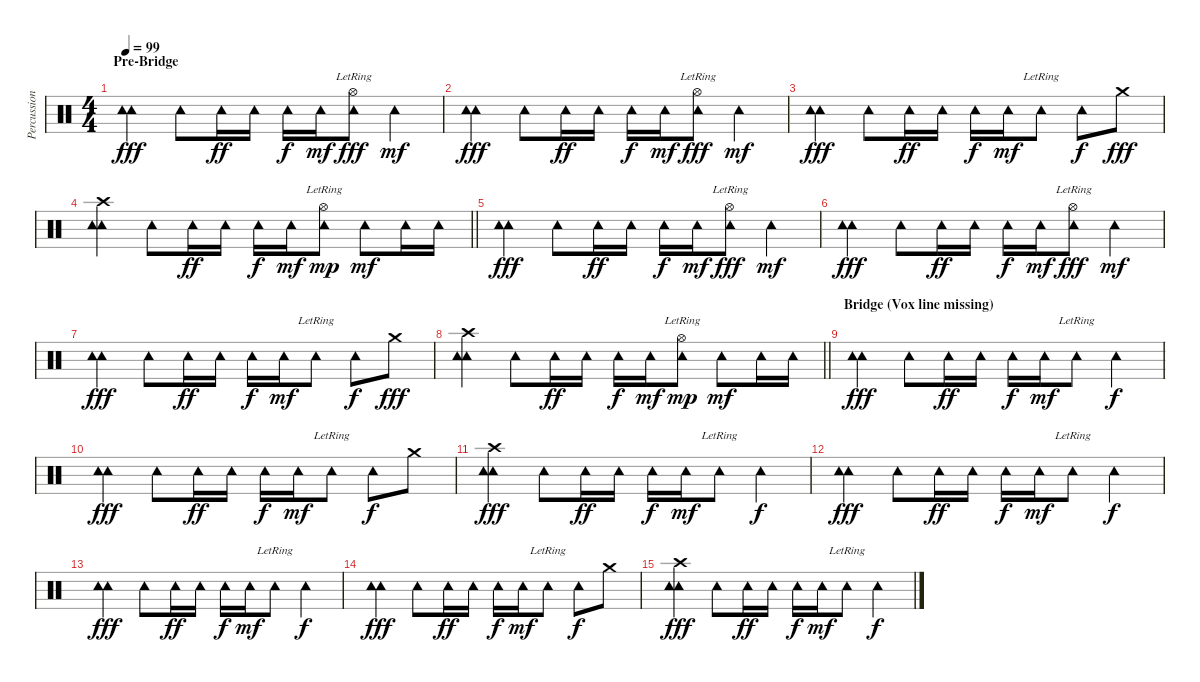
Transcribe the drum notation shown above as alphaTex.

\track ("Percussion" "Percussion") {instrument percussion}
\staff {score}
\articulation defaults
\ts (4 4)
\section ("" "Pre-Bridge")
\tempo 99
\clef neutral
\ks c
("Tambourine (hit)" "Tambourine (hit)").4{bd 60 dy fff volume 5} "Tambourine (hit)".8 "Tambourine (hit)".16{dy ff} "Tambourine (hit)".16 "Tambourine (hit)".16{dy f} "Tambourine (hit)".16{dy mf} ("Tambourine (hit)"{lr} "Hi-Hat (open)").8{dy fff} "Tambourine (hit)".4{dy mf} |
("Tambourine (hit)" "Tambourine (hit)").4{bd 60 dy fff} "Tambourine (hit)".8 "Tambourine (hit)".16{dy ff} "Tambourine (hit)".16 "Tambourine (hit)".16{dy f} "Tambourine (hit)".16{dy mf} ("Tambourine (hit)"{lr} "Hi-Hat (open)").8{dy fff} "Tambourine (hit)".4{dy mf} |
("Tambourine (hit)" "Tambourine (hit)").4{bd 60 dy fff} "Tambourine (hit)".8 "Tambourine (hit)".16{dy ff} "Tambourine (hit)".16 "Tambourine (hit)".16{dy f} "Tambourine (hit)".16{dy mf} "Tambourine (hit)"{lr}.8 "Tambourine (hit)".8{dy f} "Crash medium (hit)".8{dy fff} |
\barLineRight lightlight
("Tambourine (hit)" "Tambourine (hit)" "Crash high (hit)").4{bd 60} "Tambourine (hit)".8 "Tambourine (hit)".16{dy ff} "Tambourine (hit)".16 "Tambourine (hit)".16{dy f} "Tambourine (hit)".16{dy mf} ("Tambourine (hit)"{lr} "Hi-Hat (open)").8{dy mp} "Tambourine (hit)".8{dy mf} "Tambourine (hit)".16 "Tambourine (hit)".16 |
("Tambourine (hit)" "Tambourine (hit)").4{bd 60 dy fff volume 5} "Tambourine (hit)".8 "Tambourine (hit)".16{dy ff} "Tambourine (hit)".16 "Tambourine (hit)".16{dy f} "Tambourine (hit)".16{dy mf} ("Tambourine (hit)"{lr} "Hi-Hat (open)").8{dy fff} "Tambourine (hit)".4{dy mf} |
("Tambourine (hit)" "Tambourine (hit)").4{bd 60 dy fff} "Tambourine (hit)".8 "Tambourine (hit)".16{dy ff} "Tambourine (hit)".16 "Tambourine (hit)".16{dy f} "Tambourine (hit)".16{dy mf} ("Tambourine (hit)"{lr} "Hi-Hat (open)").8{dy fff} "Tambourine (hit)".4{dy mf} |
("Tambourine (hit)" "Tambourine (hit)").4{bd 60 dy fff} "Tambourine (hit)".8 "Tambourine (hit)".16{dy ff} "Tambourine (hit)".16 "Tambourine (hit)".16{dy f} "Tambourine (hit)".16{dy mf} "Tambourine (hit)"{lr}.8 "Tambourine (hit)".8{dy f} "Crash medium (hit)".8{dy fff} |
\barLineRight lightlight
("Tambourine (hit)" "Tambourine (hit)" "Crash high (hit)").4{bd 60} "Tambourine (hit)".8 "Tambourine (hit)".16{dy ff} "Tambourine (hit)".16 "Tambourine (hit)".16{dy f} "Tambourine (hit)".16{dy mf} ("Tambourine (hit)"{lr} "Hi-Hat (open)").8{dy mp} "Tambourine (hit)".8{dy mf} "Tambourine (hit)".16 "Tambourine (hit)".16 |
\section ("" "Bridge (Vox line missing)")
("Tambourine (hit)" "Tambourine (hit)").4{bd 60 dy fff volume 5} "Tambourine (hit)".8 "Tambourine (hit)".16{dy ff} "Tambourine (hit)".16 "Tambourine (hit)".16{dy f} "Tambourine (hit)".16{dy mf} "Tambourine (hit)"{lr}.8 "Tambourine (hit)".4{dy f} |
("Tambourine (hit)" "Tambourine (hit)").4{bd 60 dy fff} "Tambourine (hit)".8 "Tambourine (hit)".16{dy ff} "Tambourine (hit)".16 "Tambourine (hit)".16{dy f} "Tambourine (hit)".16{dy mf} "Tambourine (hit)"{lr}.8 "Tambourine (hit)".8{dy f} "Crash medium (hit)".8 |
("Tambourine (hit)" "Tambourine (hit)" "Crash high (hit)").4{bd 60 dy fff} "Tambourine (hit)".8 "Tambourine (hit)".16{dy ff} "Tambourine (hit)".16 "Tambourine (hit)".16{dy f} "Tambourine (hit)".16{dy mf} "Tambourine (hit)"{lr}.8 "Tambourine (hit)".4{dy f} |
("Tambourine (hit)" "Tambourine (hit)").4{bd 60 dy fff} "Tambourine (hit)".8 "Tambourine (hit)".16{dy ff} "Tambourine (hit)".16 "Tambourine (hit)".16{dy f} "Tambourine (hit)".16{dy mf} "Tambourine (hit)"{lr}.8 "Tambourine (hit)".4{dy f} |
("Tambourine (hit)" "Tambourine (hit)").4{bd 60 dy fff} "Tambourine (hit)".8 "Tambourine (hit)".16{dy ff} "Tambourine (hit)".16 "Tambourine (hit)".16{dy f} "Tambourine (hit)".16{dy mf} "Tambourine (hit)"{lr}.8 "Tambourine (hit)".4{dy f} |
("Tambourine (hit)" "Tambourine (hit)").4{bd 60 dy fff} "Tambourine (hit)".8 "Tambourine (hit)".16{dy ff} "Tambourine (hit)".16 "Tambourine (hit)".16{dy f} "Tambourine (hit)".16{dy mf} "Tambourine (hit)"{lr}.8 "Tambourine (hit)".8{dy f} "Crash medium (hit)".8 |
("Tambourine (hit)" "Tambourine (hit)" "Crash high (hit)").4{bd 60 dy fff} "Tambourine (hit)".8 "Tambourine (hit)".16{dy ff} "Tambourine (hit)".16 "Tambourine (hit)".16{dy f} "Tambourine (hit)".16{dy mf} "Tambourine (hit)"{lr}.8 "Tambourine (hit)".4{dy f}
